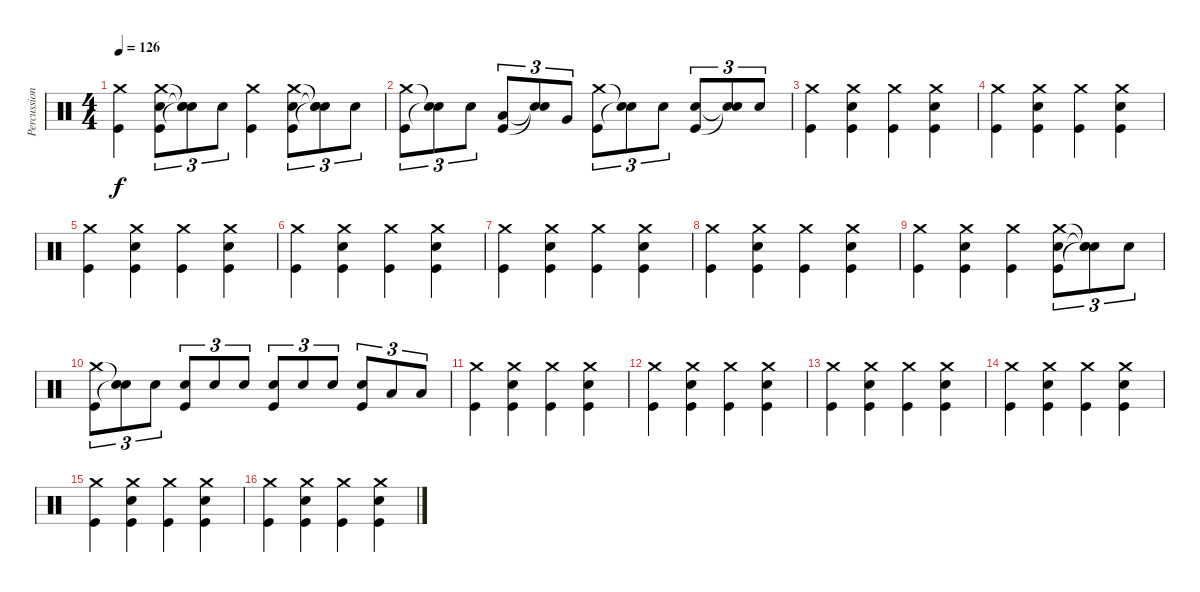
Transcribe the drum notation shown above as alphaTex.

\track ("Percussion" "Percussion") {instrument percussion}
\staff {score}
\articulation defaults
\ts (4 4)
\tempo 126
\clef neutral
\ks c
("Crash medium (hit)" "Kick (hit)").4{dy f} ("Crash medium (hit)" "Snare (hit) 2" "Kick (hit)").8{tu (3 2)} ("Snare (hit)"{t} "Snare (hit)"{t} "Snare (hit)"{t}).8{tu (3 2)} "Snare (hit) 2".8{tu (3 2)} ("Crash medium (hit)" "Kick (hit)").4 ("Crash medium (hit)" "Snare (hit) 2" "Kick (hit)").8{tu (3 2)} ("Snare (hit)"{t} "Snare (hit)"{t} "Snare (hit)"{t}).8{tu (3 2)} "Snare (hit) 2".8{tu (3 2)} |
("Crash medium (hit)" "Kick (hit)").8{tu (3 2)} ("Snare (hit)"{t} "Snare (hit)"{t}).8{tu (3 2)} "Snare (hit) 2".8{tu (3 2)} ("Low Tom (hit)" "Kick (hit)").8{tu (3 2)} ("Snare (hit)"{t} "Snare (hit)"{t}).8{tu (3 2)} "Very Low Tom (hit)".8{tu (3 2)} ("Crash medium (hit)" "Kick (hit)").8{tu (3 2)} ("Snare (hit)"{t} "Snare (hit)"{t}).8{tu (3 2)} "Snare (hit) 2".8{tu (3 2)} ("Snare (hit) 2" "Kick (hit)").8{tu (3 2)} ("Snare (hit)"{t} "Snare (hit)"{t}).8{tu (3 2)} "Snare (hit) 2".8{tu (3 2)} |
("Crash medium (hit)" "Kick (hit)").4 ("Crash medium (hit)" "Snare (hit) 2" "Kick (hit)").4 ("Crash medium (hit)" "Kick (hit)").4 ("Crash medium (hit)" "Snare (hit) 2" "Kick (hit)").4 |
("Crash medium (hit)" "Kick (hit)").4 ("Crash medium (hit)" "Snare (hit) 2" "Kick (hit)").4 ("Crash medium (hit)" "Kick (hit)").4 ("Crash medium (hit)" "Snare (hit) 2" "Kick (hit)").4 |
("Crash medium (hit)" "Kick (hit)").4 ("Crash medium (hit)" "Snare (hit) 2" "Kick (hit)").4 ("Crash medium (hit)" "Kick (hit)").4 ("Crash medium (hit)" "Snare (hit) 2" "Kick (hit)").4 |
("Crash medium (hit)" "Kick (hit)").4 ("Crash medium (hit)" "Snare (hit) 2" "Kick (hit)").4 ("Crash medium (hit)" "Kick (hit)").4 ("Crash medium (hit)" "Snare (hit) 2" "Kick (hit)").4 |
("Crash medium (hit)" "Kick (hit)").4 ("Crash medium (hit)" "Snare (hit) 2" "Kick (hit)").4 ("Crash medium (hit)" "Kick (hit)").4 ("Crash medium (hit)" "Snare (hit) 2" "Kick (hit)").4 |
("Crash medium (hit)" "Kick (hit)").4 ("Crash medium (hit)" "Snare (hit) 2" "Kick (hit)").4 ("Crash medium (hit)" "Kick (hit)").4 ("Crash medium (hit)" "Snare (hit) 2" "Kick (hit)").4 |
("Crash medium (hit)" "Kick (hit)").4 ("Crash medium (hit)" "Snare (hit) 2" "Kick (hit)").4 ("Crash medium (hit)" "Kick (hit)").4 ("Crash medium (hit)" "Snare (hit) 2" "Kick (hit)").8{tu (3 2)} ("Snare (hit)"{t} "Snare (hit)"{t} "Snare (hit)"{t}).8{tu (3 2)} "Snare (hit) 2".8{tu (3 2)} |
("Crash medium (hit)" "Kick (hit)").8{tu (3 2)} ("Snare (hit)"{t} "Snare (hit)"{t}).8{tu (3 2)} "Snare (hit) 2".8{tu (3 2)} ("Snare (hit) 2" "Kick (hit)").8{tu (3 2)} "Snare (hit) 2".8{tu (3 2)} "Snare (hit) 2".8{tu (3 2)} ("Snare (hit) 2" "Kick (hit)").8{tu (3 2)} "Snare (hit) 2".8{tu (3 2)} "Snare (hit) 2".8{tu (3 2)} ("Snare (hit) 2" "Kick (hit)").8{tu (3 2)} "Low Tom (hit)".8{tu (3 2)} "Low Tom (hit)".8{tu (3 2)} |
("Crash medium (hit)" "Kick (hit)").4 ("Crash medium (hit)" "Snare (hit) 2" "Kick (hit)").4 ("Crash medium (hit)" "Kick (hit)").4 ("Crash medium (hit)" "Snare (hit) 2" "Kick (hit)").4 |
("Crash medium (hit)" "Kick (hit)").4 ("Crash medium (hit)" "Snare (hit) 2" "Kick (hit)").4 ("Crash medium (hit)" "Kick (hit)").4 ("Crash medium (hit)" "Snare (hit) 2" "Kick (hit)").4 |
("Crash medium (hit)" "Kick (hit)").4 ("Crash medium (hit)" "Snare (hit) 2" "Kick (hit)").4 ("Crash medium (hit)" "Kick (hit)").4 ("Crash medium (hit)" "Snare (hit) 2" "Kick (hit)").4 |
("Crash medium (hit)" "Kick (hit)").4 ("Crash medium (hit)" "Snare (hit) 2" "Kick (hit)").4 ("Crash medium (hit)" "Kick (hit)").4 ("Crash medium (hit)" "Snare (hit) 2" "Kick (hit)").4 |
("Crash medium (hit)" "Kick (hit)").4 ("Crash medium (hit)" "Snare (hit) 2" "Kick (hit)").4 ("Crash medium (hit)" "Kick (hit)").4 ("Crash medium (hit)" "Snare (hit) 2" "Kick (hit)").4 |
("Crash medium (hit)" "Kick (hit)").4 ("Crash medium (hit)" "Snare (hit) 2" "Kick (hit)").4 ("Crash medium (hit)" "Kick (hit)").4 ("Crash medium (hit)" "Snare (hit) 2" "Kick (hit)").4
